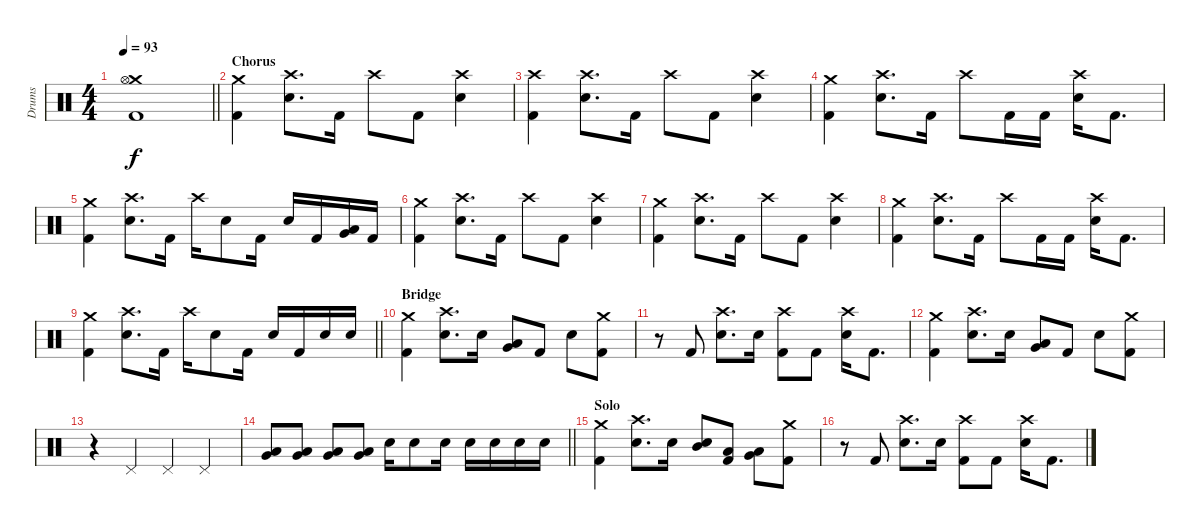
\track ("Drums" "Drums") {instrument percussion}
\staff {score}
\articulation defaults
\ts (4 4)
\tempo 93
\clef neutral
\barLineRight lightlight
\ks c
("Crash medium (hit)" "Hi-Hat (open)" "Kick (hit) 2").1{dy f} |
\section ("" "Chorus")
("Crash medium (hit)" "Kick (hit) 2").4 ("Crash high (hit)" "Electric Snare (hit)").8{d} "Kick (hit) 2".16 "Crash high (hit)".8 "Kick (hit) 2".8 ("Crash high (hit)" "Electric Snare (hit)").4 |
("Crash high (hit)" "Kick (hit) 2").4 ("Crash high (hit)" "Electric Snare (hit)").8{d} "Kick (hit) 2".16 "Crash high (hit)".8 "Kick (hit) 2".8 ("Crash high (hit)" "Electric Snare (hit)").4 |
("Crash medium (hit)" "Kick (hit) 2").4 ("Crash high (hit)" "Electric Snare (hit)").8{d} "Kick (hit) 2".16 "Crash high (hit)".8 "Kick (hit) 2".16 "Kick (hit) 2".16 ("Crash high (hit)" "Electric Snare (hit)").16 "Kick (hit) 2".8{d} |
("Crash medium (hit)" "Kick (hit) 2").4 ("Crash high (hit)" "Electric Snare (hit)").8{d} "Kick (hit) 2".16 "Crash high (hit)".16 "Electric Snare (hit)".8 "Kick (hit) 2".16 "Electric Snare (hit)".16 "Kick (hit) 2".16 ("Very Low Tom (hit)" "Low Floor Tom (hit)").16 "Kick (hit) 2".16 |
("Crash medium (hit)" "Kick (hit) 2").4 ("Crash high (hit)" "Electric Snare (hit)").8{d} "Kick (hit) 2".16 "Crash high (hit)".8 "Kick (hit) 2".8 ("Crash high (hit)" "Electric Snare (hit)").4 |
("Crash medium (hit)" "Kick (hit) 2").4 ("Crash high (hit)" "Electric Snare (hit)").8{d} "Kick (hit) 2".16 "Crash high (hit)".8 "Kick (hit) 2".8 ("Crash high (hit)" "Electric Snare (hit)").4 |
("Crash medium (hit)" "Kick (hit) 2").4 ("Crash high (hit)" "Electric Snare (hit)").8{d} "Kick (hit) 2".16 "Crash high (hit)".8 "Kick (hit) 2".16 "Kick (hit) 2".16 ("Crash high (hit)" "Electric Snare (hit)").16 "Kick (hit) 2".8{d} |
\barLineRight lightlight
("Crash medium (hit)" "Kick (hit) 2").4 ("Crash high (hit)" "Electric Snare (hit)").8{d} "Kick (hit) 2".16 "Crash high (hit)".16 "Electric Snare (hit)".8 "Kick (hit) 2".16 "Electric Snare (hit)".16 "Kick (hit) 2".16 "Electric Snare (hit)".16 "Electric Snare (hit)".16 |
\section ("" "Bridge")
("Crash medium (hit)" "Kick (hit) 2").4 ("Crash high (hit)" "Electric Snare (hit)").8{d} "Electric Snare (hit)".16 ("Very Low Tom (hit)" "Low Floor Tom (hit)").8 "Kick (hit) 2".8 "Electric Snare (hit)".8 ("Crash medium (hit)" "Kick (hit) 2").8 |
r.8 "Kick (hit) 2".8 ("Crash high (hit)" "Electric Snare (hit)").8{d} "Electric Snare (hit)".16 ("Crash high (hit)" "Kick (hit) 2").8 "Kick (hit) 2".8 ("Crash high (hit)" "Electric Snare (hit)").16 "Kick (hit) 2".8{d} |
("Crash medium (hit)" "Kick (hit) 2").4 ("Crash high (hit)" "Electric Snare (hit)").8{d} "Electric Snare (hit)".16 ("Very Low Tom (hit)" "Low Floor Tom (hit)").8 "Kick (hit) 2".8 "Electric Snare (hit)".8 ("Crash medium (hit)" "Kick (hit) 2").8 |
r.4 "Pedal Hi-Hat (hit)".4 "Pedal Hi-Hat (hit)".4 "Pedal Hi-Hat (hit)".4 |
\barLineRight lightlight
("Very Low Tom (hit)" "Low Floor Tom (hit)").8 ("Very Low Tom (hit)" "Low Floor Tom (hit)").8 ("Very Low Tom (hit)" "Low Floor Tom (hit)").8 ("Very Low Tom (hit)" "Low Floor Tom (hit)").8 "Electric Snare (hit)".16 "Electric Snare (hit)".8 "Electric Snare (hit)".16 "Electric Snare (hit)".16 "Electric Snare (hit)".16 "Electric Snare (hit)".16 "Electric Snare (hit)".16 |
\section ("" "Solo")
("Crash medium (hit)" "Kick (hit) 2").4 ("Crash high (hit)" "Electric Snare (hit)").8{d} "Electric Snare (hit)".16 ("Mid Tom (hit)" "Electric Snare (hit)").8 ("Low Tom (hit)" "Kick (hit) 2").8 ("Very Low Tom (hit)" "Low Floor Tom (hit)").8 ("Crash medium (hit)" "Kick (hit) 2").8 |
r.8 "Kick (hit) 2".8 ("Crash high (hit)" "Electric Snare (hit)").8{d} "Electric Snare (hit)".16 ("Crash high (hit)" "Kick (hit) 2").8 "Kick (hit) 2".8 ("Crash high (hit)" "Electric Snare (hit)").16 "Kick (hit) 2".8{d}
